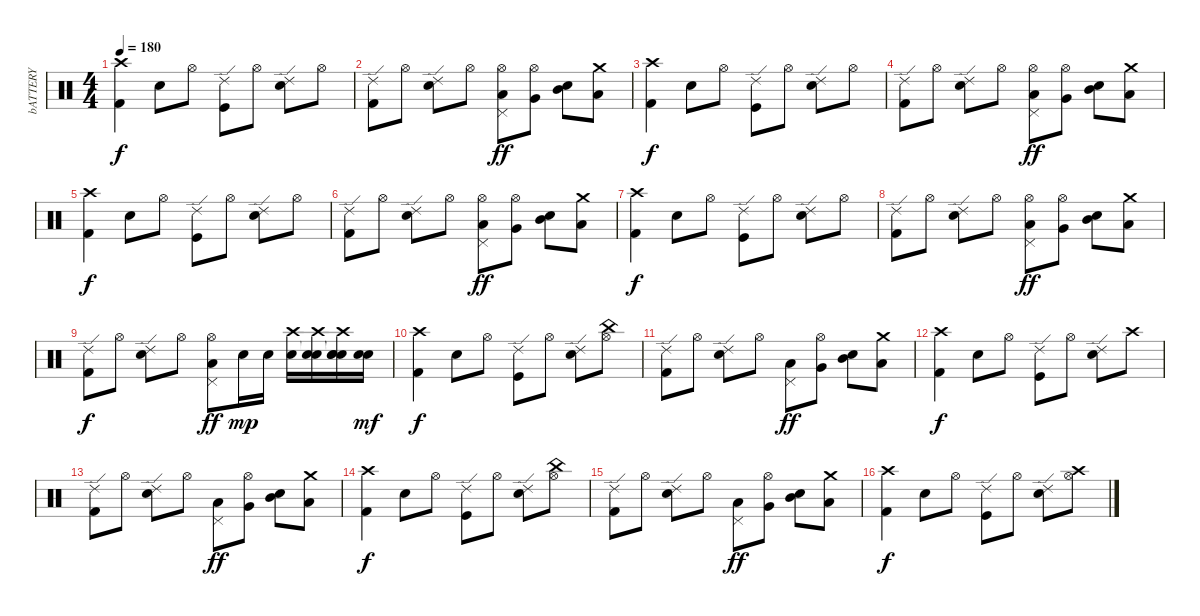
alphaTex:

\track ("bATTERY" "bATTERY") {instrument percussion}
\staff {score}
\articulation defaults
\ts (4 4)
\tempo 180
\clef neutral
\ks c
("Kick (hit) 2" "Crash high (hit)").4{dy f} "Electric Snare (hit)".8 "Hi-Hat (open)".8 ("Kick (hit)" "Ride (edge) 2").8 "Hi-Hat (open)".8 ("Electric Snare (hit)" "Ride (edge) 2").8 "Hi-Hat (open)".8 |
("Kick (hit) 2" "Ride (edge) 2").8 "Hi-Hat (open)".8 ("Electric Snare (hit)" "Ride (edge) 2").8 "Hi-Hat (open)".8 ("Pedal Hi-Hat (hit)" "Low Tom (hit)" "Hi-Hat (open)").8{dy ff} ("Very Low Tom (hit)" "Hi-Hat (open)").8 ("Mid Tom (hit)" "Electric Snare (hit)").8 ("Low Floor Tom (hit)" "Crash medium (hit)").8 |
("Kick (hit) 2" "Crash high (hit)").4{dy f} "Electric Snare (hit)".8 "Hi-Hat (open)".8 ("Kick (hit)" "Ride (edge) 2").8 "Hi-Hat (open)".8 ("Electric Snare (hit)" "Ride (edge) 2").8 "Hi-Hat (open)".8 |
("Kick (hit) 2" "Ride (edge) 2").8 "Hi-Hat (open)".8 ("Electric Snare (hit)" "Ride (edge) 2").8 "Hi-Hat (open)".8 ("Pedal Hi-Hat (hit)" "Low Tom (hit)" "Hi-Hat (open)").8{dy ff} ("Very Low Tom (hit)" "Hi-Hat (open)").8 ("Mid Tom (hit)" "Electric Snare (hit)").8 ("Low Floor Tom (hit)" "Crash medium (hit)").8 |
("Kick (hit) 2" "Crash high (hit)").4{dy f} "Electric Snare (hit)".8 "Hi-Hat (open)".8 ("Kick (hit)" "Ride (edge) 2").8 "Hi-Hat (open)".8 ("Electric Snare (hit)" "Ride (edge) 2").8 "Hi-Hat (open)".8 |
("Kick (hit) 2" "Ride (edge) 2").8 "Hi-Hat (open)".8 ("Electric Snare (hit)" "Ride (edge) 2").8 "Hi-Hat (open)".8 ("Pedal Hi-Hat (hit)" "Low Tom (hit)" "Hi-Hat (open)").8{dy ff} ("Very Low Tom (hit)" "Hi-Hat (open)").8 ("Mid Tom (hit)" "Electric Snare (hit)").8 ("Low Floor Tom (hit)" "Crash medium (hit)").8 |
("Kick (hit) 2" "Crash high (hit)").4{dy f} "Electric Snare (hit)".8 "Hi-Hat (open)".8 ("Kick (hit)" "Ride (edge) 2").8 "Hi-Hat (open)".8 ("Electric Snare (hit)" "Ride (edge) 2").8 "Hi-Hat (open)".8 |
("Kick (hit) 2" "Ride (edge) 2").8 "Hi-Hat (open)".8 ("Electric Snare (hit)" "Ride (edge) 2").8 "Hi-Hat (open)".8 ("Pedal Hi-Hat (hit)" "Low Tom (hit)" "Hi-Hat (open)").8{dy ff} ("Very Low Tom (hit)" "Hi-Hat (open)").8 ("Mid Tom (hit)" "Electric Snare (hit)").8 ("Low Floor Tom (hit)" "Crash medium (hit)").8 |
("Kick (hit) 2" "Ride (edge) 2").8{dy f} "Hi-Hat (open)".8 ("Electric Snare (hit)" "Ride (edge) 2").8 "Hi-Hat (open)".8 ("Pedal Hi-Hat (hit)" "Low Tom (hit)" "Hi-Hat (open)").8{dy ff} "Electric Snare (hit)".16{dy mp} "Electric Snare (hit)".16 ("Electric Snare (hit)" "Crash high (hit)").16 ("Snare (hit)"{t} "Electric Snare (hit)" "Crash high (hit)").16 ("Snare (hit)"{t} "Snare (hit)"{t} "Snare (hit) 2" "Crash high (hit)").16 ("Snare (hit) 2" "Snare (hit) 2").16{dy mf} |
("Kick (hit) 2" "Crash high (hit)").4{dy f} "Electric Snare (hit)".8 "Hi-Hat (open)".8 ("Kick (hit)" "Ride (edge) 2").8 "Hi-Hat (open)".8 ("Electric Snare (hit)" "Ride (edge) 2").8 ("Hi-Hat (open)" "China (hit)").8 |
("Kick (hit) 2" "Ride (edge) 2").8 "Hi-Hat (open)".8 ("Electric Snare (hit)" "Ride (edge) 2").8 "Hi-Hat (open)".8 ("Pedal Hi-Hat (hit)" "Low Tom (hit)").8{dy ff} ("Very Low Tom (hit)" "Hi-Hat (open)").8 ("Mid Tom (hit)" "Electric Snare (hit)").8 ("Low Floor Tom (hit)" "Crash medium (hit)").8 |
("Kick (hit) 2" "Crash high (hit)").4{dy f} "Electric Snare (hit)".8 "Hi-Hat (open)".8 ("Kick (hit)" "Ride (edge) 2").8 "Hi-Hat (open)".8 ("Electric Snare (hit)" "Ride (edge) 2").8 "Crash high (hit)".8 |
("Kick (hit) 2" "Ride (edge) 2").8 "Hi-Hat (open)".8 ("Electric Snare (hit)" "Ride (edge) 2").8 "Hi-Hat (open)".8 ("Pedal Hi-Hat (hit)" "Low Tom (hit)").8{dy ff} ("Very Low Tom (hit)" "Hi-Hat (open)").8 ("Mid Tom (hit)" "Electric Snare (hit)").8 ("Low Floor Tom (hit)" "Crash medium (hit)").8 |
("Kick (hit) 2" "Crash high (hit)").4{dy f} "Electric Snare (hit)".8 "Hi-Hat (open)".8 ("Kick (hit)" "Ride (edge) 2").8 "Hi-Hat (open)".8 ("Electric Snare (hit)" "Ride (edge) 2").8 ("Hi-Hat (open)" "China (hit)").8 |
("Kick (hit) 2" "Ride (edge) 2").8 "Hi-Hat (open)".8 ("Electric Snare (hit)" "Ride (edge) 2").8 "Hi-Hat (open)".8 ("Pedal Hi-Hat (hit)" "Low Tom (hit)").8{dy ff} ("Very Low Tom (hit)" "Hi-Hat (open)").8 ("Mid Tom (hit)" "Electric Snare (hit)").8 ("Low Floor Tom (hit)" "Crash medium (hit)").8 |
("Kick (hit) 2" "Crash high (hit)").4{dy f} "Electric Snare (hit)".8 "Hi-Hat (open)".8 ("Kick (hit)" "Ride (edge) 2").8 "Hi-Hat (open)".8 ("Electric Snare (hit)" "Ride (edge) 2").8 ("Hi-Hat (open)" "Crash high (hit)").8
